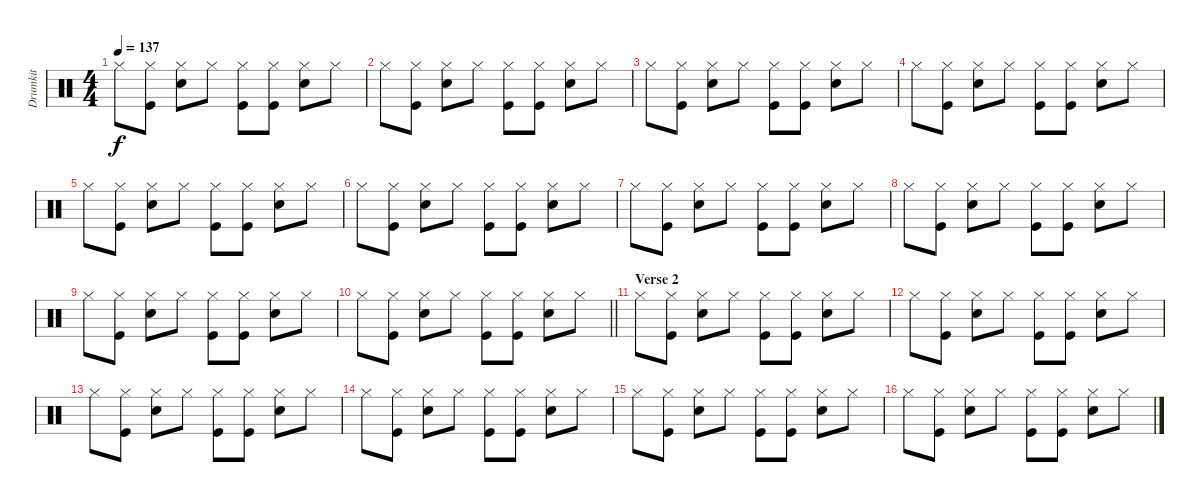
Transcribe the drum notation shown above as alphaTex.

\track ("Drumkit" "Drumkit") {instrument percussion}
\staff {score}
\articulation defaults
\ts (4 4)
\tempo 137
\clef neutral
\ks c "Hi-Hat (closed)".8{dy f}
("Hi-Hat (closed)" "Kick (hit)").8 ("Hi-Hat (closed)" "Snare (hit) 2").8 "Hi-Hat (closed)".8 ("Hi-Hat (closed)" "Kick (hit)").8 ("Hi-Hat (closed)" "Kick (hit)").8 ("Hi-Hat (closed)" "Snare (hit) 2").8 "Hi-Hat (closed)".8 |
"Hi-Hat (closed)".8 ("Hi-Hat (closed)" "Kick (hit)").8 ("Hi-Hat (closed)" "Snare (hit) 2").8 "Hi-Hat (closed)".8 ("Hi-Hat (closed)" "Kick (hit)").8 ("Hi-Hat (closed)" "Kick (hit)").8 ("Hi-Hat (closed)" "Snare (hit) 2").8 "Hi-Hat (closed)".8 |
"Hi-Hat (closed)".8 ("Hi-Hat (closed)" "Kick (hit)").8 ("Hi-Hat (closed)" "Snare (hit) 2").8 "Hi-Hat (closed)".8 ("Hi-Hat (closed)" "Kick (hit)").8 ("Hi-Hat (closed)" "Kick (hit)").8 ("Hi-Hat (closed)" "Snare (hit) 2").8 "Hi-Hat (closed)".8 |
"Hi-Hat (closed)".8 ("Hi-Hat (closed)" "Kick (hit)").8 ("Hi-Hat (closed)" "Snare (hit) 2").8 "Hi-Hat (closed)".8 ("Hi-Hat (closed)" "Kick (hit)").8 ("Hi-Hat (closed)" "Kick (hit)").8 ("Hi-Hat (closed)" "Snare (hit) 2").8 "Hi-Hat (closed)".8 |
"Hi-Hat (closed)".8 ("Hi-Hat (closed)" "Kick (hit)").8 ("Hi-Hat (closed)" "Snare (hit) 2").8 "Hi-Hat (closed)".8 ("Hi-Hat (closed)" "Kick (hit)").8 ("Hi-Hat (closed)" "Kick (hit)").8 ("Hi-Hat (closed)" "Snare (hit) 2").8 "Hi-Hat (closed)".8 |
"Hi-Hat (closed)".8 ("Hi-Hat (closed)" "Kick (hit)").8 ("Hi-Hat (closed)" "Snare (hit) 2").8 "Hi-Hat (closed)".8 ("Hi-Hat (closed)" "Kick (hit)").8 ("Hi-Hat (closed)" "Kick (hit)").8 ("Hi-Hat (closed)" "Snare (hit) 2").8 "Hi-Hat (closed)".8 |
"Hi-Hat (closed)".8 ("Hi-Hat (closed)" "Kick (hit)").8 ("Hi-Hat (closed)" "Snare (hit) 2").8 "Hi-Hat (closed)".8 ("Hi-Hat (closed)" "Kick (hit)").8 ("Hi-Hat (closed)" "Kick (hit)").8 ("Hi-Hat (closed)" "Snare (hit) 2").8 "Hi-Hat (closed)".8 |
"Hi-Hat (closed)".8 ("Hi-Hat (closed)" "Kick (hit)").8 ("Hi-Hat (closed)" "Snare (hit) 2").8 "Hi-Hat (closed)".8 ("Hi-Hat (closed)" "Kick (hit)").8 ("Hi-Hat (closed)" "Kick (hit)").8 ("Hi-Hat (closed)" "Snare (hit) 2").8 "Hi-Hat (closed)".8 |
"Hi-Hat (closed)".8 ("Hi-Hat (closed)" "Kick (hit)").8 ("Hi-Hat (closed)" "Snare (hit) 2").8 "Hi-Hat (closed)".8 ("Hi-Hat (closed)" "Kick (hit)").8 ("Hi-Hat (closed)" "Kick (hit)").8 ("Hi-Hat (closed)" "Snare (hit) 2").8 "Hi-Hat (closed)".8 |
\barLineRight lightlight "Hi-Hat (closed)".8
("Hi-Hat (closed)" "Kick (hit)").8 ("Hi-Hat (closed)" "Snare (hit) 2").8 "Hi-Hat (closed)".8 ("Hi-Hat (closed)" "Kick (hit)").8 ("Hi-Hat (closed)" "Kick (hit)").8 ("Hi-Hat (closed)" "Snare (hit) 2").8 "Hi-Hat (closed)".8 |
\section ("" "Verse 2")
"Hi-Hat (closed)".8 ("Hi-Hat (closed)" "Kick (hit)").8 ("Hi-Hat (closed)" "Snare (hit) 2").8 "Hi-Hat (closed)".8 ("Hi-Hat (closed)" "Kick (hit)").8 ("Hi-Hat (closed)" "Kick (hit)").8 ("Hi-Hat (closed)" "Snare (hit) 2").8 "Hi-Hat (closed)".8 |
"Hi-Hat (closed)".8 ("Hi-Hat (closed)" "Kick (hit)").8 ("Hi-Hat (closed)" "Snare (hit) 2").8 "Hi-Hat (closed)".8 ("Hi-Hat (closed)" "Kick (hit)").8 ("Hi-Hat (closed)" "Kick (hit)").8 ("Hi-Hat (closed)" "Snare (hit) 2").8 "Hi-Hat (closed)".8 |
"Hi-Hat (closed)".8 ("Hi-Hat (closed)" "Kick (hit)").8 ("Hi-Hat (closed)" "Snare (hit) 2").8 "Hi-Hat (closed)".8 ("Hi-Hat (closed)" "Kick (hit)").8 ("Hi-Hat (closed)" "Kick (hit)").8 ("Hi-Hat (closed)" "Snare (hit) 2").8 "Hi-Hat (closed)".8 |
"Hi-Hat (closed)".8 ("Hi-Hat (closed)" "Kick (hit)").8 ("Hi-Hat (closed)" "Snare (hit) 2").8 "Hi-Hat (closed)".8 ("Hi-Hat (closed)" "Kick (hit)").8 ("Hi-Hat (closed)" "Kick (hit)").8 ("Hi-Hat (closed)" "Snare (hit) 2").8 "Hi-Hat (closed)".8 |
"Hi-Hat (closed)".8 ("Hi-Hat (closed)" "Kick (hit)").8 ("Hi-Hat (closed)" "Snare (hit) 2").8 "Hi-Hat (closed)".8 ("Hi-Hat (closed)" "Kick (hit)").8 ("Hi-Hat (closed)" "Kick (hit)").8 ("Hi-Hat (closed)" "Snare (hit) 2").8 "Hi-Hat (closed)".8 |
"Hi-Hat (closed)".8 ("Hi-Hat (closed)" "Kick (hit)").8 ("Hi-Hat (closed)" "Snare (hit) 2").8 "Hi-Hat (closed)".8 ("Hi-Hat (closed)" "Kick (hit)").8 ("Hi-Hat (closed)" "Kick (hit)").8 ("Hi-Hat (closed)" "Snare (hit) 2").8 "Hi-Hat (closed)".8
